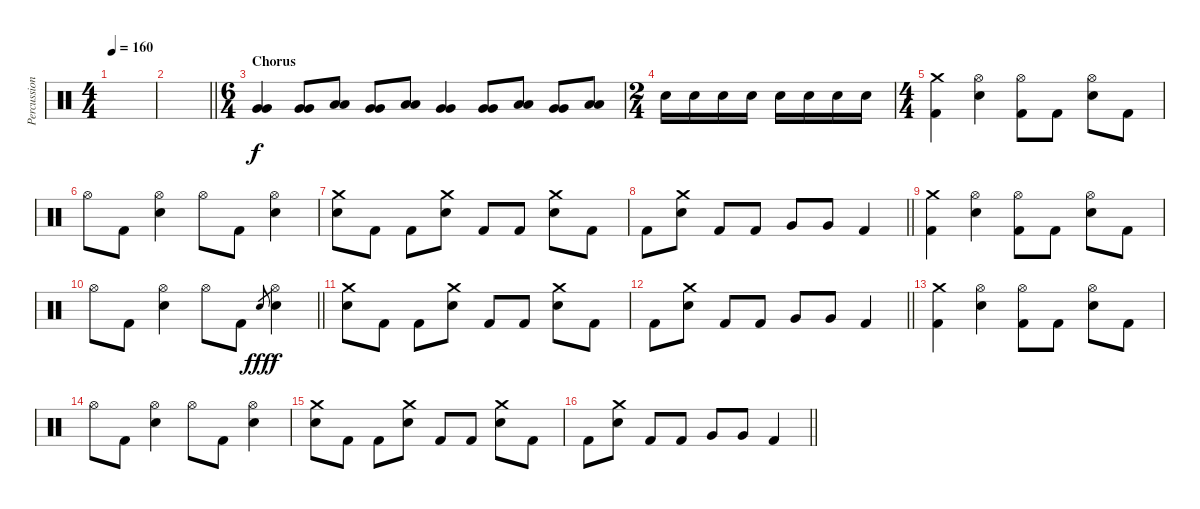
\track ("Percussion" "Percussion") {instrument percussion}
\staff {score}
\articulation defaults
\ts (4 4)
\tempo 160
\clef neutral
\ks c
|
\barLineRight lightlight
|
\ts (6 4)
\section ("" "Chorus")
("Very Low Tom (hit)" "Very Low Tom (hit)").4 ("Very Low Tom (hit)" "Very Low Tom (hit)").8 ("Low Floor Tom (hit)" "Low Floor Tom (hit)").8 ("Very Low Tom (hit)" "Very Low Tom (hit)").8 ("Low Floor Tom (hit)" "Low Floor Tom (hit)").8 ("Very Low Tom (hit)" "Very Low Tom (hit)").4 ("Very Low Tom (hit)" "Very Low Tom (hit)").8 ("Low Floor Tom (hit)" "Low Floor Tom (hit)").8 ("Very Low Tom (hit)" "Very Low Tom (hit)").8 ("Low Tom (hit)" "Low Tom (hit)").8 |
\ts (2 4)
"Electric Snare (hit)".16 "Electric Snare (hit)".16 "Electric Snare (hit)".16 "Electric Snare (hit)".16 "Electric Snare (hit)".16 "Electric Snare (hit)".16 "Electric Snare (hit)".16 "Electric Snare (hit)".16 |
\ts (4 4)
("Crash medium (hit)" "Kick (hit) 2").4 ("Hi-Hat (open)" "Electric Snare (hit)").4 ("Hi-Hat (open)" "Kick (hit) 2").8 "Kick (hit) 2".8 ("Hi-Hat (open)" "Electric Snare (hit)").8 "Kick (hit) 2".8 |
"Hi-Hat (open)".8 "Kick (hit) 2".8 ("Hi-Hat (open)" "Electric Snare (hit)").4 "Hi-Hat (open)".8 "Kick (hit) 2".8 ("Hi-Hat (open)" "Electric Snare (hit)").4 |
("Crash medium (hit)" "Electric Snare (hit)").8 "Kick (hit) 2".8 "Kick (hit) 2".8 ("Crash medium (hit)" "Electric Snare (hit)").8 "Kick (hit) 2".8 "Kick (hit) 2".8 ("Crash medium (hit)" "Electric Snare (hit)").8 "Kick (hit) 2".8 |
\barLineRight lightlight "Kick (hit) 2".8
("Crash medium (hit)" "Electric Snare (hit)").8 "Kick (hit) 2".8 "Kick (hit) 2".8 "Very Low Tom (hit)".8 "Very Low Tom (hit)".8 "Kick (hit) 2".4 |
("Crash medium (hit)" "Kick (hit) 2").4 ("Hi-Hat (open)" "Electric Snare (hit)").4 ("Hi-Hat (open)" "Kick (hit) 2").8 "Kick (hit) 2".8 ("Hi-Hat (open)" "Electric Snare (hit)").8 "Kick (hit) 2".8 |
\barLineRight lightlight "Hi-Hat (open)".8 "Kick (hit) 2".8
("Hi-Hat (open)" "Electric Snare (hit)").4 "Hi-Hat (open)".8 "Kick (hit) 2".8 "Electric Snare (hit)".8{gr dy fff} ("Hi-Hat (open)" "Electric Snare (hit)").4{dy f} |
("Crash medium (hit)" "Electric Snare (hit)").8 "Kick (hit) 2".8 "Kick (hit) 2".8 ("Crash medium (hit)" "Electric Snare (hit)").8 "Kick (hit) 2".8 "Kick (hit) 2".8 ("Crash medium (hit)" "Electric Snare (hit)").8 "Kick (hit) 2".8 |
\barLineRight lightlight "Kick (hit) 2".8
("Crash medium (hit)" "Electric Snare (hit)").8 "Kick (hit) 2".8 "Kick (hit) 2".8 "Very Low Tom (hit)".8 "Very Low Tom (hit)".8 "Kick (hit) 2".4 |
("Crash medium (hit)" "Kick (hit) 2").4 ("Hi-Hat (open)" "Electric Snare (hit)").4 ("Hi-Hat (open)" "Kick (hit) 2").8 "Kick (hit) 2".8 ("Hi-Hat (open)" "Electric Snare (hit)").8 "Kick (hit) 2".8 |
"Hi-Hat (open)".8 "Kick (hit) 2".8 ("Hi-Hat (open)" "Electric Snare (hit)").4 "Hi-Hat (open)".8 "Kick (hit) 2".8 ("Hi-Hat (open)" "Electric Snare (hit)").4 |
("Crash medium (hit)" "Electric Snare (hit)").8 "Kick (hit) 2".8 "Kick (hit) 2".8 ("Crash medium (hit)" "Electric Snare (hit)").8 "Kick (hit) 2".8 "Kick (hit) 2".8 ("Crash medium (hit)" "Electric Snare (hit)").8 "Kick (hit) 2".8 |
\barLineRight lightlight "Kick (hit) 2".8
("Crash medium (hit)" "Electric Snare (hit)").8 "Kick (hit) 2".8 "Kick (hit) 2".8 "Very Low Tom (hit)".8 "Very Low Tom (hit)".8 "Kick (hit) 2".4
